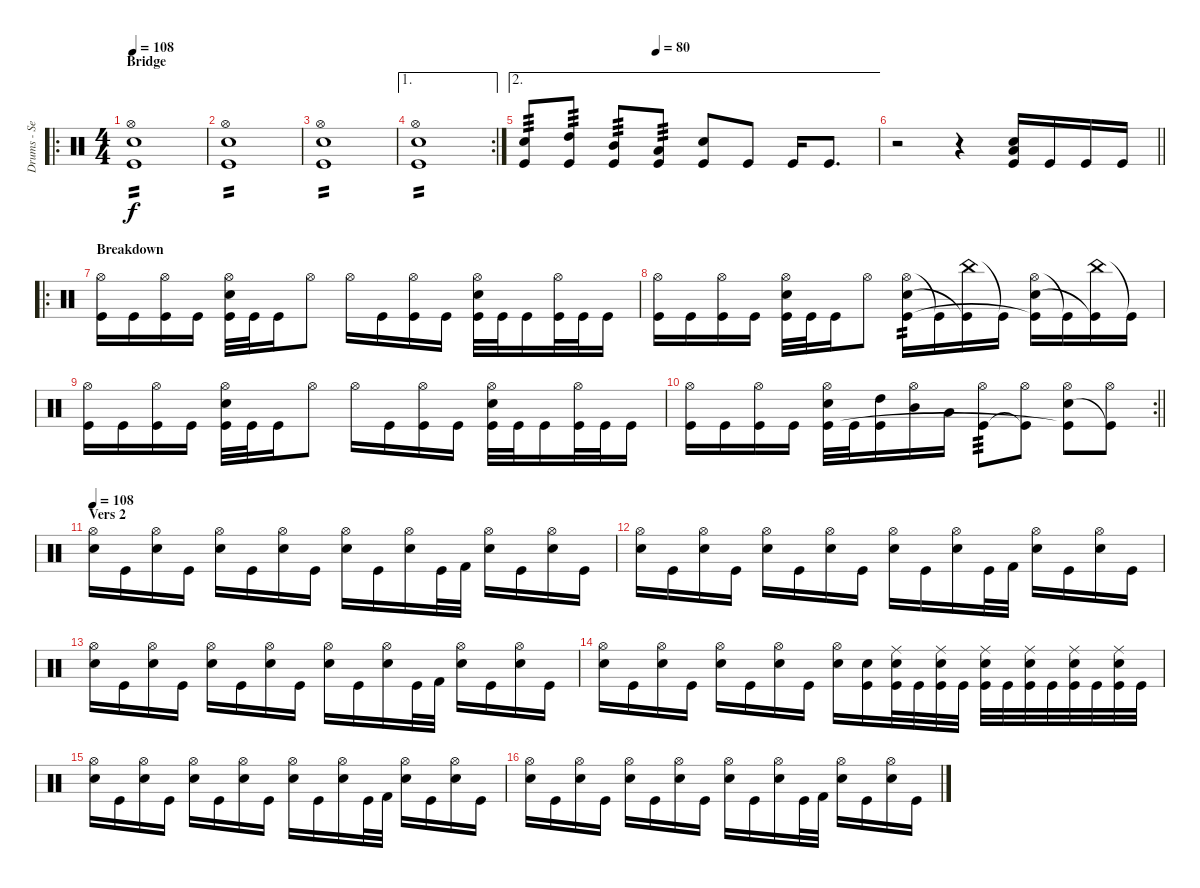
\track ("Drums - Sebastian Heldt" "Drums - Se") {instrument percussion}
\staff {score}
\articulation defaults
\ro
\ts (4 4)
\section ("" "Bridge")
\tempo 108
\clef neutral
\ks c
("Hi-Hat (open)" "Electric Snare (hit)" "Kick (hit)").1{tp 2 dy f} |
("Hi-Hat (open)" "Electric Snare (hit)" "Kick (hit)").1{tp 2} |
("Hi-Hat (open)" "Electric Snare (hit)" "Kick (hit)").1{tp 2} |
\ae 1
\rc 2
("Hi-Hat (open)" "Electric Snare (hit)" "Kick (hit)").1{tp 2} |
\ae 2
\tempo (80 0.375)
("Electric Snare (hit)" "Kick (hit)").8{tp 3} ("High Tom (hit)" "Kick (hit)").8{tp 3} ("Mid Tom (hit)" "Kick (hit)").8{tp 3} ("Low Tom (hit)" "Kick (hit)").8{tp 3} ("Electric Snare (hit)" "Kick (hit)").8 "Kick (hit)".8 "Kick (hit)".16 "Kick (hit)".8{d} |
\barLineRight lightlight
r.2 r.4 ("Electric Snare (hit)" "Low Tom (hit)" "Kick (hit)").16 "Kick (hit)".16 "Kick (hit)".16 "Kick (hit)".16 |
\ro
\section ("" "Breakdown")
("Hi-Hat (open)" "Kick (hit)").16 "Kick (hit)".16 ("Hi-Hat (open)" "Kick (hit)").16 "Kick (hit)".16 ("Hi-Hat (open)" "Electric Snare (hit)" "Kick (hit)").32 "Kick (hit)".32 "Kick (hit)".16 "Hi-Hat (open)".8 "Hi-Hat (open)".16 "Kick (hit)".16 ("Hi-Hat (open)" "Kick (hit)").16 "Kick (hit)".16 ("Hi-Hat (open)" "Electric Snare (hit)" "Kick (hit)").32 "Kick (hit)".32 "Kick (hit)".16 ("Hi-Hat (open)" "Kick (hit)").32 "Kick (hit)".32 "Kick (hit)".16 |
("Hi-Hat (open)" "Kick (hit)").16 "Kick (hit)".16 ("Hi-Hat (open)" "Kick (hit)").16 "Kick (hit)".16 ("Hi-Hat (open)" "Electric Snare (hit)" "Kick (hit)").32 "Kick (hit)".32 "Kick (hit)".16 "Hi-Hat (open)".8 ("Hi-Hat (open)" "Electric Snare (hit)" "Kick (hit)").16{tp 2} "Kick (hit)"{t}.16 ("China (hit)" "Kick (hit)"{t}).16 "Kick (hit)"{t}.16 ("Hi-Hat (open)" "Electric Snare (hit)" "Kick (hit)"{t}).16 "Kick (hit)"{t}.16 ("China (hit)" "Kick (hit)"{t}).16 "Kick (hit)"{t}.16 |
("Hi-Hat (open)" "Kick (hit)").16 "Kick (hit)".16 ("Hi-Hat (open)" "Kick (hit)").16 "Kick (hit)".16 ("Hi-Hat (open)" "Electric Snare (hit)" "Kick (hit)").32 "Kick (hit)".32 "Kick (hit)".16 "Hi-Hat (open)".8 "Hi-Hat (open)".16 "Kick (hit)".16 ("Hi-Hat (open)" "Kick (hit)").16 "Kick (hit)".16 ("Hi-Hat (open)" "Electric Snare (hit)" "Kick (hit)").32 "Kick (hit)".32 "Kick (hit)".16 ("Hi-Hat (open)" "Kick (hit)").32 "Kick (hit)".32 "Kick (hit)".16 |
\rc 2
\barLineRight lightlight
("Hi-Hat (open)" "Kick (hit)").16 "Kick (hit)".16 ("Hi-Hat (open)" "Kick (hit)").16 "Kick (hit)".16 ("Hi-Hat (open)" "Electric Snare (hit)" "Kick (hit)").32 "Kick (hit)".32 ("High Tom (hit)" "Kick (hit)").16 ("Hi-Hat (open)" "Mid Tom (hit)").16 "Low Tom (hit)".16 ("Hi-Hat (open)" "Kick (hit)").8{tp 3} ("Hi-Hat (open)" "Kick (hit)"{t}).8 ("Hi-Hat (open)" "Electric Snare (hit)" "Kick (hit)"{t}).8 ("Hi-Hat (open)" "Kick (hit)"{t}).8 |
\section ("" "Vers 2")
\tempo 108
("Hi-Hat (open)" "Electric Snare (hit)").16 "Kick (hit)".16 ("Hi-Hat (open)" "Electric Snare (hit)").16 "Kick (hit)".16 ("Hi-Hat (open)" "Electric Snare (hit)").16 "Kick (hit)".16 ("Hi-Hat (open)" "Electric Snare (hit)").16 "Kick (hit)".16 ("Hi-Hat (open)" "Electric Snare (hit)").16 "Kick (hit)".16 ("Hi-Hat (open)" "Electric Snare (hit)").16 "Kick (hit)".32 "Kick (hit) 2".32 ("Hi-Hat (open)" "Electric Snare (hit)").16 "Kick (hit)".16 ("Hi-Hat (open)" "Electric Snare (hit)").16 "Kick (hit)".16 |
("Hi-Hat (open)" "Electric Snare (hit)").16 "Kick (hit)".16 ("Hi-Hat (open)" "Electric Snare (hit)").16 "Kick (hit)".16 ("Hi-Hat (open)" "Electric Snare (hit)").16 "Kick (hit)".16 ("Hi-Hat (open)" "Electric Snare (hit)").16 "Kick (hit)".16 ("Hi-Hat (open)" "Electric Snare (hit)").16 "Kick (hit)".16 ("Hi-Hat (open)" "Electric Snare (hit)").16 "Kick (hit)".32 "Kick (hit) 2".32 ("Hi-Hat (open)" "Electric Snare (hit)").16 "Kick (hit)".16 ("Hi-Hat (open)" "Electric Snare (hit)").16 "Kick (hit)".16 |
("Hi-Hat (open)" "Electric Snare (hit)").16 "Kick (hit)".16 ("Hi-Hat (open)" "Electric Snare (hit)").16 "Kick (hit)".16 ("Hi-Hat (open)" "Electric Snare (hit)").16 "Kick (hit)".16 ("Hi-Hat (open)" "Electric Snare (hit)").16 "Kick (hit)".16 ("Hi-Hat (open)" "Electric Snare (hit)").16 "Kick (hit)".16 ("Hi-Hat (open)" "Electric Snare (hit)").16 "Kick (hit)".32 "Kick (hit) 2".32 ("Hi-Hat (open)" "Electric Snare (hit)").16 "Kick (hit)".16 ("Hi-Hat (open)" "Electric Snare (hit)").16 "Kick (hit)".16 |
("Hi-Hat (open)" "Electric Snare (hit)").16 "Kick (hit)".16 ("Hi-Hat (open)" "Electric Snare (hit)").16 "Kick (hit)".16 ("Hi-Hat (open)" "Electric Snare (hit)").16 "Kick (hit)".16 ("Hi-Hat (open)" "Electric Snare (hit)").16 "Kick (hit)".16 ("Hi-Hat (open)" "Electric Snare (hit)").16 ("Electric Snare (hit)" "Kick (hit)").16 ("Ride (middle)" "Electric Snare (hit)" "Kick (hit)").32 "Kick (hit)".32 ("Ride (middle)" "Electric Snare (hit)" "Kick (hit)").32 "Kick (hit)".32 ("Ride (middle)" "Electric Snare (hit)" "Kick (hit)").32 "Kick (hit)".32 ("Ride (middle)" "Electric Snare (hit)" "Kick (hit)").32 "Kick (hit)".32 ("Ride (middle)" "Electric Snare (hit)" "Kick (hit)").32 "Kick (hit)".32 ("Ride (middle)" "Electric Snare (hit)" "Kick (hit)").32 "Kick (hit)".32 |
("Hi-Hat (open)" "Electric Snare (hit)").16 "Kick (hit)".16 ("Hi-Hat (open)" "Electric Snare (hit)").16 "Kick (hit)".16 ("Hi-Hat (open)" "Electric Snare (hit)").16 "Kick (hit)".16 ("Hi-Hat (open)" "Electric Snare (hit)").16 "Kick (hit)".16 ("Hi-Hat (open)" "Electric Snare (hit)").16 "Kick (hit)".16 ("Hi-Hat (open)" "Electric Snare (hit)").16 "Kick (hit)".32 "Kick (hit) 2".32 ("Hi-Hat (open)" "Electric Snare (hit)").16 "Kick (hit)".16 ("Hi-Hat (open)" "Electric Snare (hit)").16 "Kick (hit)".16 |
("Hi-Hat (open)" "Electric Snare (hit)").16 "Kick (hit)".16 ("Hi-Hat (open)" "Electric Snare (hit)").16 "Kick (hit)".16 ("Hi-Hat (open)" "Electric Snare (hit)").16 "Kick (hit)".16 ("Hi-Hat (open)" "Electric Snare (hit)").16 "Kick (hit)".16 ("Hi-Hat (open)" "Electric Snare (hit)").16 "Kick (hit)".16 ("Hi-Hat (open)" "Electric Snare (hit)").16 "Kick (hit)".32 "Kick (hit) 2".32 ("Hi-Hat (open)" "Electric Snare (hit)").16 "Kick (hit)".16 ("Hi-Hat (open)" "Electric Snare (hit)").16 "Kick (hit)".16
